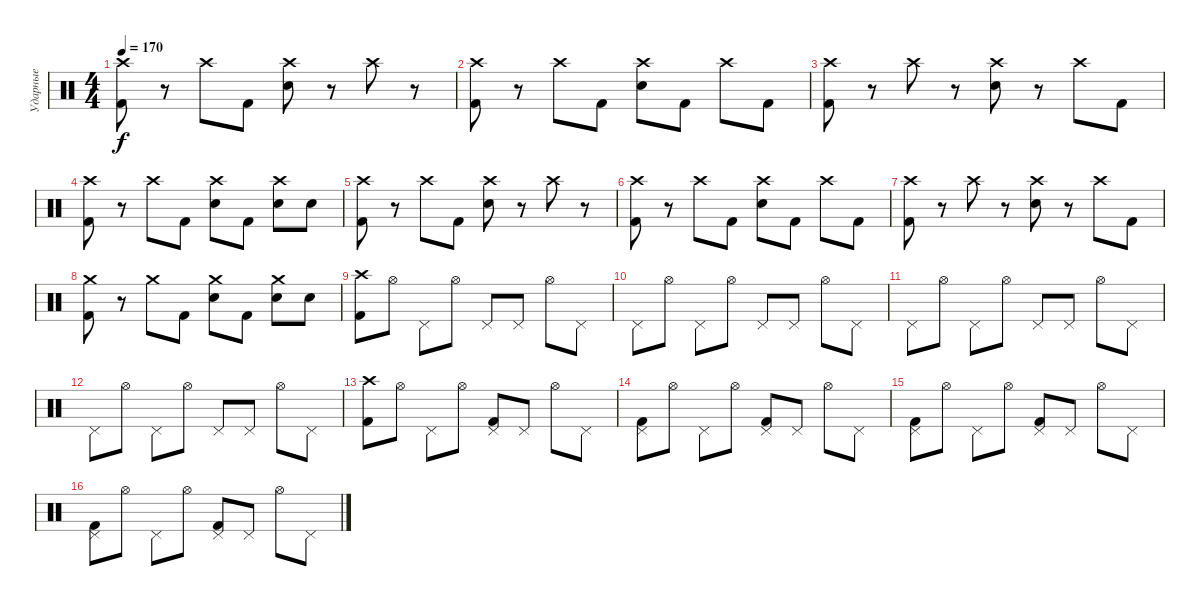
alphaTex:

\track ("Ударные" "Ударные") {instrument percussion}
\staff {score}
\articulation defaults
\ts (4 4)
\tempo 170
\clef neutral
\ks c
("Crash high (hit)" "Kick (hit) 2").8{dy f} r.8 "Crash high (hit)".8 "Kick (hit) 2".8 ("Crash high (hit)" "Snare (hit) 2").8 r.8 "Crash high (hit)".8 r.8 |
("Crash high (hit)" "Kick (hit) 2").8 r.8 "Crash high (hit)".8 "Kick (hit) 2".8 ("Crash high (hit)" "Snare (hit) 2").8 "Kick (hit) 2".8 "Crash high (hit)".8 "Kick (hit) 2".8 |
("Crash high (hit)" "Kick (hit) 2").8 r.8 "Crash high (hit)".8 r.8 ("Crash high (hit)" "Snare (hit) 2").8 r.8 "Crash high (hit)".8 "Kick (hit) 2".8 |
("Crash high (hit)" "Kick (hit) 2").8 r.8 "Crash high (hit)".8 "Kick (hit) 2".8 ("Crash high (hit)" "Snare (hit) 2").8 "Kick (hit) 2".8 ("Crash high (hit)" "Snare (hit) 2").8 "Snare (hit) 2".8 |
("Crash high (hit)" "Kick (hit) 2").8 r.8 "Crash high (hit)".8 "Kick (hit) 2".8 ("Crash high (hit)" "Snare (hit) 2").8 r.8 "Crash high (hit)".8 r.8 |
("Crash high (hit)" "Kick (hit) 2").8 r.8 "Crash high (hit)".8 "Kick (hit) 2".8 ("Crash high (hit)" "Snare (hit) 2").8 "Kick (hit) 2".8 "Crash high (hit)".8 "Kick (hit) 2".8 |
("Crash high (hit)" "Kick (hit) 2").8 r.8 "Crash high (hit)".8 r.8 ("Crash high (hit)" "Snare (hit) 2").8 r.8 "Crash high (hit)".8 "Kick (hit) 2".8 |
("Crash medium (hit)" "Kick (hit) 2").8 r.8 "Crash medium (hit)".8 "Kick (hit) 2".8 ("Crash medium (hit)" "Snare (hit) 2").8 "Kick (hit) 2".8 ("Crash medium (hit)" "Snare (hit) 2").8 "Snare (hit) 2".8 |
("Crash high (hit)" "Kick (hit) 2").8 "Hi-Hat (open)".8 "Pedal Hi-Hat (hit)".8 "Hi-Hat (open)".8 "Pedal Hi-Hat (hit)".8 "Pedal Hi-Hat (hit)".8 "Hi-Hat (open)".8 "Pedal Hi-Hat (hit)".8 |
"Pedal Hi-Hat (hit)".8 "Hi-Hat (open)".8 "Pedal Hi-Hat (hit)".8 "Hi-Hat (open)".8 "Pedal Hi-Hat (hit)".8 "Pedal Hi-Hat (hit)".8 "Hi-Hat (open)".8 "Pedal Hi-Hat (hit)".8 |
"Pedal Hi-Hat (hit)".8 "Hi-Hat (open)".8 "Pedal Hi-Hat (hit)".8 "Hi-Hat (open)".8 "Pedal Hi-Hat (hit)".8 "Pedal Hi-Hat (hit)".8 "Hi-Hat (open)".8 "Pedal Hi-Hat (hit)".8 |
"Pedal Hi-Hat (hit)".8 "Hi-Hat (open)".8 "Pedal Hi-Hat (hit)".8 "Hi-Hat (open)".8 "Pedal Hi-Hat (hit)".8 "Pedal Hi-Hat (hit)".8 "Hi-Hat (open)".8 "Pedal Hi-Hat (hit)".8 |
("Crash high (hit)" "Kick (hit) 2").8 "Hi-Hat (open)".8 "Pedal Hi-Hat (hit)".8 "Hi-Hat (open)".8 ("Pedal Hi-Hat (hit)" "Kick (hit) 2").8 "Pedal Hi-Hat (hit)".8 "Hi-Hat (open)".8 "Pedal Hi-Hat (hit)".8 |
("Pedal Hi-Hat (hit)" "Kick (hit) 2").8 "Hi-Hat (open)".8 "Pedal Hi-Hat (hit)".8 "Hi-Hat (open)".8 ("Pedal Hi-Hat (hit)" "Kick (hit) 2").8 "Pedal Hi-Hat (hit)".8 "Hi-Hat (open)".8 "Pedal Hi-Hat (hit)".8 |
("Pedal Hi-Hat (hit)" "Kick (hit) 2").8 "Hi-Hat (open)".8 "Pedal Hi-Hat (hit)".8 "Hi-Hat (open)".8 ("Pedal Hi-Hat (hit)" "Kick (hit) 2").8 "Pedal Hi-Hat (hit)".8 "Hi-Hat (open)".8 "Pedal Hi-Hat (hit)".8 |
("Pedal Hi-Hat (hit)" "Kick (hit) 2").8 "Hi-Hat (open)".8 "Pedal Hi-Hat (hit)".8 "Hi-Hat (open)".8 ("Pedal Hi-Hat (hit)" "Kick (hit) 2").8 "Pedal Hi-Hat (hit)".8 "Hi-Hat (open)".8 "Pedal Hi-Hat (hit)".8
